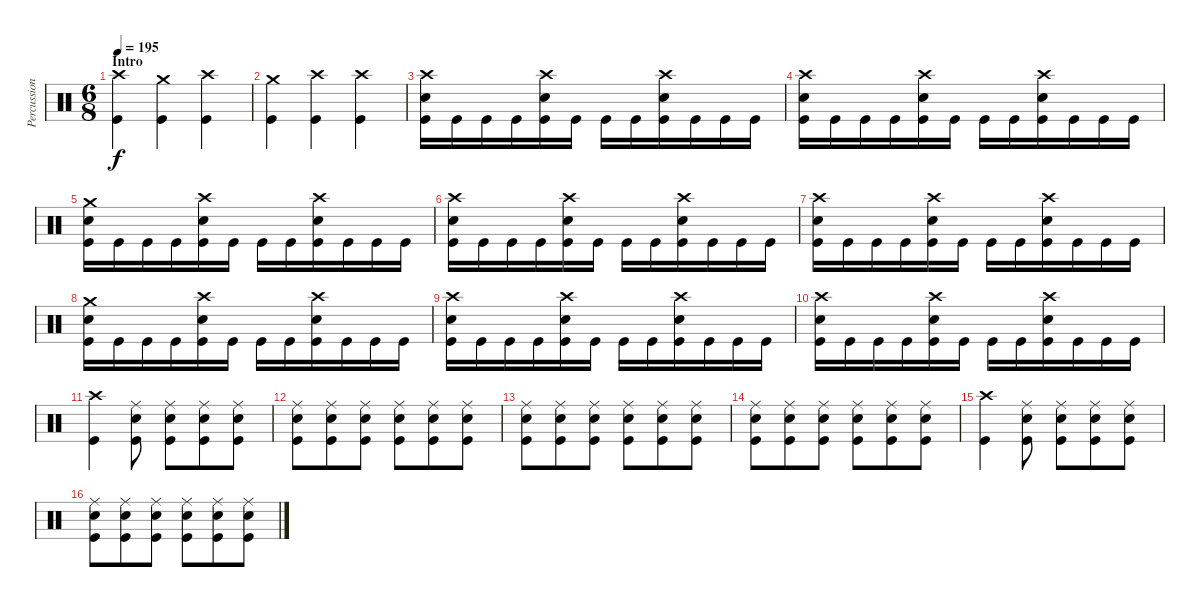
\track ("Percussion" "Percussion") {instrument percussion}
\staff {score}
\articulation defaults
\ts (6 8)
\section ("" "Intro")
\tempo 195
\clef neutral
\ks c
("Crash high (hit)" "Kick (hit)").4{dy f} ("Crash medium (hit)" "Kick (hit)").4 ("Kick (hit)" "Crash high (hit)").4 |
("Crash medium (hit)" "Kick (hit)").4 ("Kick (hit)" "Crash high (hit)").4 ("Kick (hit)" "Crash high (hit)").4 |
("Crash high (hit)" "Snare (hit) 2" "Kick (hit)").16 "Kick (hit)".16 "Kick (hit)".16 "Kick (hit)".16 ("Crash high (hit)" "Snare (hit) 2" "Kick (hit)").16 "Kick (hit)".16 "Kick (hit)".16 "Kick (hit)".16 ("Crash high (hit)" "Snare (hit) 2" "Kick (hit)").16 "Kick (hit)".16 "Kick (hit)".16 "Kick (hit)".16 |
("Crash high (hit)" "Snare (hit) 2" "Kick (hit)").16 "Kick (hit)".16 "Kick (hit)".16 "Kick (hit)".16 ("Crash high (hit)" "Snare (hit) 2" "Kick (hit)").16 "Kick (hit)".16 "Kick (hit)".16 "Kick (hit)".16 ("Crash high (hit)" "Snare (hit) 2" "Kick (hit)").16 "Kick (hit)".16 "Kick (hit)".16 "Kick (hit)".16 |
("Crash medium (hit)" "Snare (hit) 2" "Kick (hit)").16 "Kick (hit)".16 "Kick (hit)".16 "Kick (hit)".16 ("Crash high (hit)" "Snare (hit) 2" "Kick (hit)").16 "Kick (hit)".16 "Kick (hit)".16 "Kick (hit)".16 ("Crash high (hit)" "Snare (hit) 2" "Kick (hit)").16 "Kick (hit)".16 "Kick (hit)".16 "Kick (hit)".16 |
("Crash high (hit)" "Snare (hit) 2" "Kick (hit)").16 "Kick (hit)".16 "Kick (hit)".16 "Kick (hit)".16 ("Crash high (hit)" "Snare (hit) 2" "Kick (hit)").16 "Kick (hit)".16 "Kick (hit)".16 "Kick (hit)".16 ("Crash high (hit)" "Snare (hit) 2" "Kick (hit)").16 "Kick (hit)".16 "Kick (hit)".16 "Kick (hit)".16 |
("Crash high (hit)" "Snare (hit) 2" "Kick (hit)").16 "Kick (hit)".16 "Kick (hit)".16 "Kick (hit)".16 ("Crash high (hit)" "Snare (hit) 2" "Kick (hit)").16 "Kick (hit)".16 "Kick (hit)".16 "Kick (hit)".16 ("Crash high (hit)" "Snare (hit) 2" "Kick (hit)").16 "Kick (hit)".16 "Kick (hit)".16 "Kick (hit)".16 |
("Crash medium (hit)" "Snare (hit) 2" "Kick (hit)").16 "Kick (hit)".16 "Kick (hit)".16 "Kick (hit)".16 ("Crash high (hit)" "Snare (hit) 2" "Kick (hit)").16 "Kick (hit)".16 "Kick (hit)".16 "Kick (hit)".16 ("Crash high (hit)" "Snare (hit) 2" "Kick (hit)").16 "Kick (hit)".16 "Kick (hit)".16 "Kick (hit)".16 |
("Crash high (hit)" "Snare (hit) 2" "Kick (hit)").16 "Kick (hit)".16 "Kick (hit)".16 "Kick (hit)".16 ("Crash high (hit)" "Snare (hit) 2" "Kick (hit)").16 "Kick (hit)".16 "Kick (hit)".16 "Kick (hit)".16 ("Crash high (hit)" "Snare (hit) 2" "Kick (hit)").16 "Kick (hit)".16 "Kick (hit)".16 "Kick (hit)".16 |
("Crash high (hit)" "Snare (hit) 2" "Kick (hit)").16 "Kick (hit)".16 "Kick (hit)".16 "Kick (hit)".16 ("Crash high (hit)" "Snare (hit) 2" "Kick (hit)").16 "Kick (hit)".16 "Kick (hit)".16 "Kick (hit)".16 ("Crash high (hit)" "Snare (hit) 2" "Kick (hit)").16 "Kick (hit)".16 "Kick (hit)".16 "Kick (hit)".16 |
("Crash high (hit)" "Kick (hit)").4 ("Ride (middle)" "Snare (hit) 2" "Kick (hit)").8 ("Ride (middle)" "Snare (hit) 2" "Kick (hit)").8 ("Ride (middle)" "Snare (hit) 2" "Kick (hit)").8 ("Ride (middle)" "Snare (hit) 2" "Kick (hit)").8 |
("Ride (middle)" "Snare (hit) 2" "Kick (hit)").8 ("Ride (middle)" "Snare (hit) 2" "Kick (hit)").8 ("Ride (middle)" "Snare (hit) 2" "Kick (hit)").8 ("Ride (middle)" "Snare (hit) 2" "Kick (hit)").8 ("Ride (middle)" "Snare (hit) 2" "Kick (hit)").8 ("Ride (middle)" "Snare (hit) 2" "Kick (hit)").8 |
("Ride (middle)" "Snare (hit) 2" "Kick (hit)").8 ("Ride (middle)" "Snare (hit) 2" "Kick (hit)").8 ("Ride (middle)" "Snare (hit) 2" "Kick (hit)").8 ("Ride (middle)" "Snare (hit) 2" "Kick (hit)").8 ("Ride (middle)" "Snare (hit) 2" "Kick (hit)").8 ("Ride (middle)" "Snare (hit) 2" "Kick (hit)").8 |
("Ride (middle)" "Snare (hit) 2" "Kick (hit)").8 ("Ride (middle)" "Snare (hit) 2" "Kick (hit)").8 ("Ride (middle)" "Snare (hit) 2" "Kick (hit)").8 ("Ride (middle)" "Snare (hit) 2" "Kick (hit)").8 ("Ride (middle)" "Snare (hit) 2" "Kick (hit)").8 ("Ride (middle)" "Snare (hit) 2" "Kick (hit)").8 |
("Crash high (hit)" "Kick (hit)").4 ("Ride (middle)" "Snare (hit) 2" "Kick (hit)").8 ("Ride (middle)" "Snare (hit) 2" "Kick (hit)").8 ("Ride (middle)" "Snare (hit) 2" "Kick (hit)").8 ("Ride (middle)" "Snare (hit) 2" "Kick (hit)").8 |
("Ride (middle)" "Snare (hit) 2" "Kick (hit)").8 ("Ride (middle)" "Snare (hit) 2" "Kick (hit)").8 ("Ride (middle)" "Snare (hit) 2" "Kick (hit)").8 ("Ride (middle)" "Snare (hit) 2" "Kick (hit)").8 ("Ride (middle)" "Snare (hit) 2" "Kick (hit)").8 ("Ride (middle)" "Snare (hit) 2" "Kick (hit)").8
